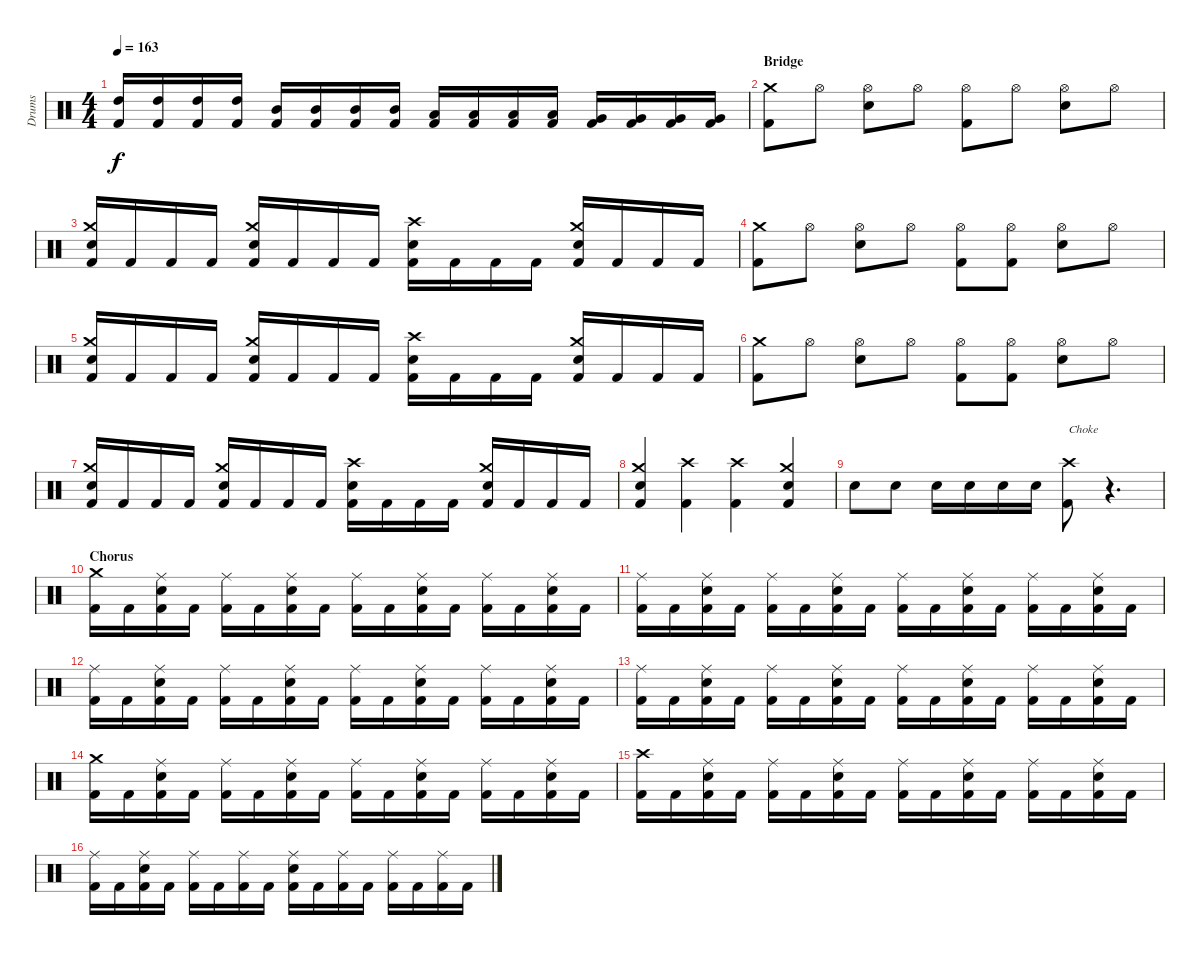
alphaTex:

\track ("Drums" "Drums") {instrument percussion}
\staff {score}
\articulation defaults
\ts (4 4)
\tempo 163
\clef neutral
\ks c
("High Tom (hit)" "Kick (hit) 2").16{dy f} ("High Tom (hit)" "Kick (hit) 2").16 ("High Tom (hit)" "Kick (hit) 2").16 ("High Tom (hit)" "Kick (hit) 2").16 ("Mid Tom (hit)" "Kick (hit) 2").16 ("Mid Tom (hit)" "Kick (hit) 2").16 ("Mid Tom (hit)" "Kick (hit) 2").16 ("Mid Tom (hit)" "Kick (hit) 2").16 ("Low Tom (hit)" "Kick (hit) 2").16 ("Low Tom (hit)" "Kick (hit) 2").16 ("Low Tom (hit)" "Kick (hit) 2").16 ("Low Tom (hit)" "Kick (hit) 2").16 ("Very Low Tom (hit)" "Kick (hit) 2").16 ("Very Low Tom (hit)" "Kick (hit) 2").16 ("Very Low Tom (hit)" "Kick (hit) 2").16 ("Very Low Tom (hit)" "Kick (hit) 2").16 |
\section ("" "Bridge")
("Crash medium (hit)" "Kick (hit) 2").8 "Hi-Hat (open)".8 ("Hi-Hat (open)" "Snare (hit) 2").8 "Hi-Hat (open)".8 ("Hi-Hat (open)" "Kick (hit) 2").8 "Hi-Hat (open)".8 ("Hi-Hat (open)" "Snare (hit) 2").8 "Hi-Hat (open)".8 |
("Crash medium (hit)" "Snare (hit) 2" "Kick (hit) 2").16 "Kick (hit) 2".16 "Kick (hit) 2".16 "Kick (hit) 2".16 ("Crash medium (hit)" "Snare (hit) 2" "Kick (hit) 2").16 "Kick (hit) 2".16 "Kick (hit) 2".16 "Kick (hit) 2".16 ("Crash high (hit)" "Snare (hit) 2" "Kick (hit) 2").16 "Kick (hit) 2".16 "Kick (hit) 2".16 "Kick (hit) 2".16 ("Crash medium (hit)" "Snare (hit) 2" "Kick (hit) 2").16 "Kick (hit) 2".16 "Kick (hit) 2".16 "Kick (hit) 2".16 |
("Crash medium (hit)" "Kick (hit) 2").8 "Hi-Hat (open)".8 ("Hi-Hat (open)" "Snare (hit) 2").8 "Hi-Hat (open)".8 ("Hi-Hat (open)" "Kick (hit) 2").8 ("Hi-Hat (open)" "Kick (hit) 2").8 ("Hi-Hat (open)" "Snare (hit) 2").8 "Hi-Hat (open)".8 |
("Crash medium (hit)" "Snare (hit) 2" "Kick (hit) 2").16 "Kick (hit) 2".16 "Kick (hit) 2".16 "Kick (hit) 2".16 ("Crash medium (hit)" "Snare (hit) 2" "Kick (hit) 2").16 "Kick (hit) 2".16 "Kick (hit) 2".16 "Kick (hit) 2".16 ("Crash high (hit)" "Snare (hit) 2" "Kick (hit) 2").16 "Kick (hit) 2".16 "Kick (hit) 2".16 "Kick (hit) 2".16 ("Crash medium (hit)" "Snare (hit) 2" "Kick (hit) 2").16 "Kick (hit) 2".16 "Kick (hit) 2".16 "Kick (hit) 2".16 |
("Crash medium (hit)" "Kick (hit) 2").8 "Hi-Hat (open)".8 ("Hi-Hat (open)" "Snare (hit) 2").8 "Hi-Hat (open)".8 ("Hi-Hat (open)" "Kick (hit) 2").8 ("Hi-Hat (open)" "Kick (hit) 2").8 ("Hi-Hat (open)" "Snare (hit) 2").8 "Hi-Hat (open)".8 |
("Crash medium (hit)" "Snare (hit) 2" "Kick (hit) 2").16 "Kick (hit) 2".16 "Kick (hit) 2".16 "Kick (hit) 2".16 ("Crash medium (hit)" "Snare (hit) 2" "Kick (hit) 2").16 "Kick (hit) 2".16 "Kick (hit) 2".16 "Kick (hit) 2".16 ("Crash high (hit)" "Snare (hit) 2" "Kick (hit) 2").16 "Kick (hit) 2".16 "Kick (hit) 2".16 "Kick (hit) 2".16 ("Crash medium (hit)" "Snare (hit) 2" "Kick (hit) 2").16 "Kick (hit) 2".16 "Kick (hit) 2".16 "Kick (hit) 2".16 |
("Crash medium (hit)" "Snare (hit) 2" "Kick (hit) 2").4 ("Crash high (hit)" "Kick (hit) 2").4 ("Crash high (hit)" "Kick (hit) 2").4 ("Crash medium (hit)" "Snare (hit) 2" "Kick (hit) 2").4 |
"Snare (hit) 2".8 "Snare (hit) 2".8 "Snare (hit) 2".16 "Snare (hit) 2".16 "Snare (hit) 2".16 "Snare (hit) 2".16 ("Crash high (hit)" "Kick (hit) 2").8{txt "Choke"} r.4{d volume 2} |
\section ("" "Chorus")
("Crash medium (hit)" "Kick (hit) 2").16{volume 14} "Kick (hit) 2".16 ("Ride (middle)" "Snare (hit) 2" "Kick (hit) 2").16 "Kick (hit) 2".16 ("Ride (middle)" "Kick (hit) 2").16 "Kick (hit) 2".16 ("Ride (middle)" "Snare (hit) 2" "Kick (hit) 2").16 "Kick (hit) 2".16 ("Ride (middle)" "Kick (hit) 2").16 "Kick (hit) 2".16 ("Ride (middle)" "Snare (hit) 2" "Kick (hit) 2").16 "Kick (hit) 2".16 ("Ride (middle)" "Kick (hit) 2").16 "Kick (hit) 2".16 ("Ride (middle)" "Snare (hit) 2" "Kick (hit) 2").16 "Kick (hit) 2".16 |
("Ride (middle)" "Kick (hit) 2").16 "Kick (hit) 2".16 ("Ride (middle)" "Snare (hit) 2" "Kick (hit) 2").16 "Kick (hit) 2".16 ("Ride (middle)" "Kick (hit) 2").16 "Kick (hit) 2".16 ("Ride (middle)" "Snare (hit) 2" "Kick (hit) 2").16 "Kick (hit) 2".16 ("Ride (middle)" "Kick (hit) 2").16 "Kick (hit) 2".16 ("Ride (middle)" "Snare (hit) 2" "Kick (hit) 2").16 "Kick (hit) 2".16 ("Ride (middle)" "Kick (hit) 2").16 "Kick (hit) 2".16 ("Ride (middle)" "Snare (hit) 2" "Kick (hit) 2").16 "Kick (hit) 2".16 |
("Ride (middle)" "Kick (hit) 2").16 "Kick (hit) 2".16 ("Ride (middle)" "Snare (hit) 2" "Kick (hit) 2").16 "Kick (hit) 2".16 ("Ride (middle)" "Kick (hit) 2").16 "Kick (hit) 2".16 ("Ride (middle)" "Snare (hit) 2" "Kick (hit) 2").16 "Kick (hit) 2".16 ("Ride (middle)" "Kick (hit) 2").16 "Kick (hit) 2".16 ("Ride (middle)" "Snare (hit) 2" "Kick (hit) 2").16 "Kick (hit) 2".16 ("Ride (middle)" "Kick (hit) 2").16 "Kick (hit) 2".16 ("Ride (middle)" "Snare (hit) 2" "Kick (hit) 2").16 "Kick (hit) 2".16 |
("Ride (middle)" "Kick (hit) 2").16 "Kick (hit) 2".16 ("Ride (middle)" "Snare (hit) 2" "Kick (hit) 2").16 "Kick (hit) 2".16 ("Ride (middle)" "Kick (hit) 2").16 "Kick (hit) 2".16 ("Ride (middle)" "Snare (hit) 2" "Kick (hit) 2").16 "Kick (hit) 2".16 ("Ride (middle)" "Kick (hit) 2").16 "Kick (hit) 2".16 ("Ride (middle)" "Snare (hit) 2" "Kick (hit) 2").16 "Kick (hit) 2".16 ("Ride (middle)" "Kick (hit) 2").16 "Kick (hit) 2".16 ("Ride (middle)" "Snare (hit) 2" "Kick (hit) 2").16 "Kick (hit) 2".16 |
("Crash medium (hit)" "Kick (hit) 2").16 "Kick (hit) 2".16 ("Ride (middle)" "Snare (hit) 2" "Kick (hit) 2").16 "Kick (hit) 2".16 ("Ride (middle)" "Kick (hit) 2").16 "Kick (hit) 2".16 ("Ride (middle)" "Snare (hit) 2" "Kick (hit) 2").16 "Kick (hit) 2".16 ("Ride (middle)" "Kick (hit) 2").16 "Kick (hit) 2".16 ("Ride (middle)" "Snare (hit) 2" "Kick (hit) 2").16 "Kick (hit) 2".16 ("Ride (middle)" "Kick (hit) 2").16 "Kick (hit) 2".16 ("Ride (middle)" "Snare (hit) 2" "Kick (hit) 2").16 "Kick (hit) 2".16 |
("Crash high (hit)" "Kick (hit) 2").16 "Kick (hit) 2".16 ("Ride (middle)" "Snare (hit) 2" "Kick (hit) 2").16 "Kick (hit) 2".16 ("Ride (middle)" "Kick (hit) 2").16 "Kick (hit) 2".16 ("Ride (middle)" "Snare (hit) 2" "Kick (hit) 2").16 "Kick (hit) 2".16 ("Ride (middle)" "Kick (hit) 2").16 "Kick (hit) 2".16 ("Ride (middle)" "Snare (hit) 2" "Kick (hit) 2").16 "Kick (hit) 2".16 ("Ride (middle)" "Kick (hit) 2").16 "Kick (hit) 2".16 ("Ride (middle)" "Snare (hit) 2" "Kick (hit) 2").16 "Kick (hit) 2".16 |
("Ride (middle)" "Kick (hit) 2").16 "Kick (hit) 2".16 ("Ride (middle)" "Snare (hit) 2" "Kick (hit) 2").16 "Kick (hit) 2".16 ("Ride (middle)" "Kick (hit) 2").16 "Kick (hit) 2".16 ("Ride (middle)" "Kick (hit) 2").16 "Kick (hit) 2".16 ("Ride (middle)" "Snare (hit) 2" "Kick (hit) 2").16 "Kick (hit) 2".16 ("Ride (middle)" "Kick (hit) 2").16 "Kick (hit) 2".16 ("Ride (middle)" "Kick (hit) 2").16 "Kick (hit) 2".16 ("Ride (middle)" "Kick (hit) 2").16 "Kick (hit) 2".16
